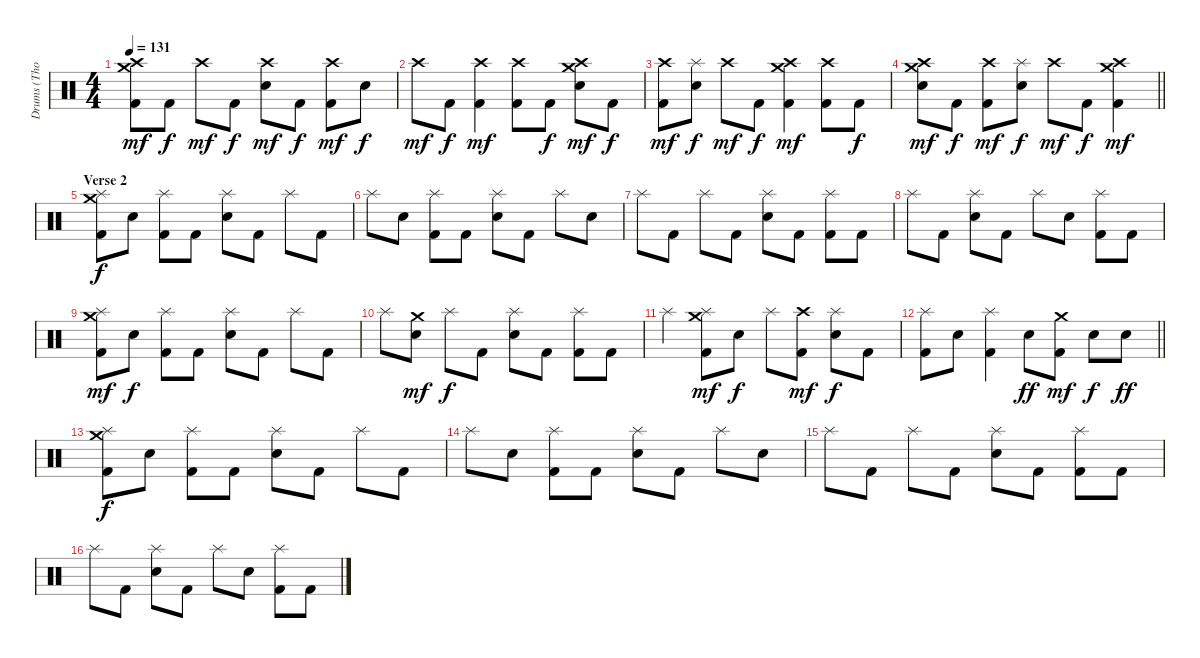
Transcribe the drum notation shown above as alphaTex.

\track ("Drums (Thomas Haake)" "Drums (Tho") {instrument percussion}
\staff {score}
\articulation defaults
\ts (4 4)
\tempo 131
\clef neutral
\ks c
("Crash medium (hit)" "Crash high (hit)" "Kick (hit) 2").8{dy mf} "Kick (hit) 2".8{dy f} "Crash high (hit)".8{dy mf} "Kick (hit) 2".8{dy f} ("Crash high (hit)" "Electric Snare (hit)").8{dy mf} "Kick (hit) 2".8{dy f} ("Crash high (hit)" "Kick (hit) 2").8{dy mf} "Electric Snare (hit)".8{dy f} |
"Crash high (hit)".8{dy mf} "Kick (hit) 2".8{dy f} ("Crash high (hit)" "Kick (hit) 2").4{dy mf} ("Crash high (hit)" "Kick (hit) 2").8 "Kick (hit) 2".8{dy f} ("Crash medium (hit)" "Crash high (hit)" "Electric Snare (hit)").8{dy mf} "Kick (hit) 2".8{dy f} |
("Crash high (hit)" "Kick (hit) 2").8{dy mf} ("Splash (hit)" "Electric Snare (hit)").8{dy f} "Crash high (hit)".8{dy mf} "Kick (hit) 2".8{dy f} ("Crash medium (hit)" "Crash high (hit)" "Kick (hit) 2").4{dy mf} ("Crash high (hit)" "Kick (hit) 2").8 "Kick (hit) 2".8{dy f} |
\barLineRight lightlight
("Crash medium (hit)" "Crash high (hit)" "Electric Snare (hit)").8{dy mf} "Kick (hit) 2".8{dy f} ("Crash high (hit)" "Kick (hit) 2").8{dy mf} ("Splash (hit)" "Electric Snare (hit)").8{dy f} "Crash high (hit)".8{dy mf} "Kick (hit) 2".8{dy f} ("Crash medium (hit)" "Crash high (hit)" "Kick (hit) 2").4{dy mf} |
\section ("" "Verse 2")
("Splash (hit)" "Crash medium (hit)" "Kick (hit) 2").8{dy f} "Electric Snare (hit)".8 ("Splash (hit)" "Kick (hit) 2").8 "Kick (hit) 2".8 ("Splash (hit)" "Electric Snare (hit)").8 "Kick (hit) 2".8 "Splash (hit)".8 "Kick (hit) 2".8 |
"Splash (hit)".8 "Electric Snare (hit)".8 ("Splash (hit)" "Kick (hit) 2").8 "Kick (hit) 2".8 ("Splash (hit)" "Electric Snare (hit)").8 "Kick (hit) 2".8 "Splash (hit)".8 "Electric Snare (hit)".8 |
"Splash (hit)".8 "Kick (hit) 2".8 "Splash (hit)".8 "Kick (hit) 2".8 ("Splash (hit)" "Electric Snare (hit)").8 "Kick (hit) 2".8 ("Splash (hit)" "Kick (hit) 2").8 "Kick (hit) 2".8 |
"Splash (hit)".8 "Kick (hit) 2".8 ("Splash (hit)" "Electric Snare (hit)").8 "Kick (hit) 2".8 "Splash (hit)".8 "Electric Snare (hit)".8 ("Splash (hit)" "Kick (hit) 2").8 "Kick (hit) 2".8 |
("Splash (hit)" "Crash medium (hit)" "Kick (hit) 2").8{dy mf} "Electric Snare (hit)".8{dy f} ("Splash (hit)" "Kick (hit) 2").8 "Kick (hit) 2".8 ("Splash (hit)" "Electric Snare (hit)").8 "Kick (hit) 2".8 "Splash (hit)".8 "Kick (hit) 2".8 |
"Splash (hit)".8 ("Crash medium (hit)" "Electric Snare (hit)").8{dy mf} "Splash (hit)".8{dy f} "Kick (hit) 2".8 ("Splash (hit)" "Electric Snare (hit)").8 "Kick (hit) 2".8 ("Splash (hit)" "Kick (hit) 2").8 "Kick (hit) 2".8 |
"Splash (hit)".4 ("Splash (hit)" "Crash medium (hit)" "Kick (hit) 2").8{dy mf} "Electric Snare (hit)".8{dy f} "Splash (hit)".8 ("Crash high (hit)" "Kick (hit) 2").8{dy mf} ("Splash (hit)" "Electric Snare (hit)").8{dy f} "Kick (hit) 2".8 |
\barLineRight lightlight
("Splash (hit)" "Kick (hit) 2").8 "Electric Snare (hit)".8 ("Splash (hit)" "Kick (hit) 2").4 "Electric Snare (hit)".8{dy ff} ("Crash medium (hit)" "Kick (hit) 2").8{dy mf} "Electric Snare (hit)".8{dy f} "Electric Snare (hit)".8{dy ff} |
("Splash (hit)" "Crash medium (hit)" "Kick (hit) 2").8{dy f} "Electric Snare (hit)".8 ("Splash (hit)" "Kick (hit) 2").8 "Kick (hit) 2".8 ("Splash (hit)" "Electric Snare (hit)").8 "Kick (hit) 2".8 "Splash (hit)".8 "Kick (hit) 2".8 |
"Splash (hit)".8 "Electric Snare (hit)".8 ("Splash (hit)" "Kick (hit) 2").8 "Kick (hit) 2".8 ("Splash (hit)" "Electric Snare (hit)").8 "Kick (hit) 2".8 "Splash (hit)".8 "Electric Snare (hit)".8 |
"Splash (hit)".8 "Kick (hit) 2".8 "Splash (hit)".8 "Kick (hit) 2".8 ("Splash (hit)" "Electric Snare (hit)").8 "Kick (hit) 2".8 ("Splash (hit)" "Kick (hit) 2").8 "Kick (hit) 2".8 |
"Splash (hit)".8 "Kick (hit) 2".8 ("Splash (hit)" "Electric Snare (hit)").8 "Kick (hit) 2".8 "Splash (hit)".8 "Electric Snare (hit)".8 ("Splash (hit)" "Kick (hit) 2").8 "Kick (hit) 2".8
